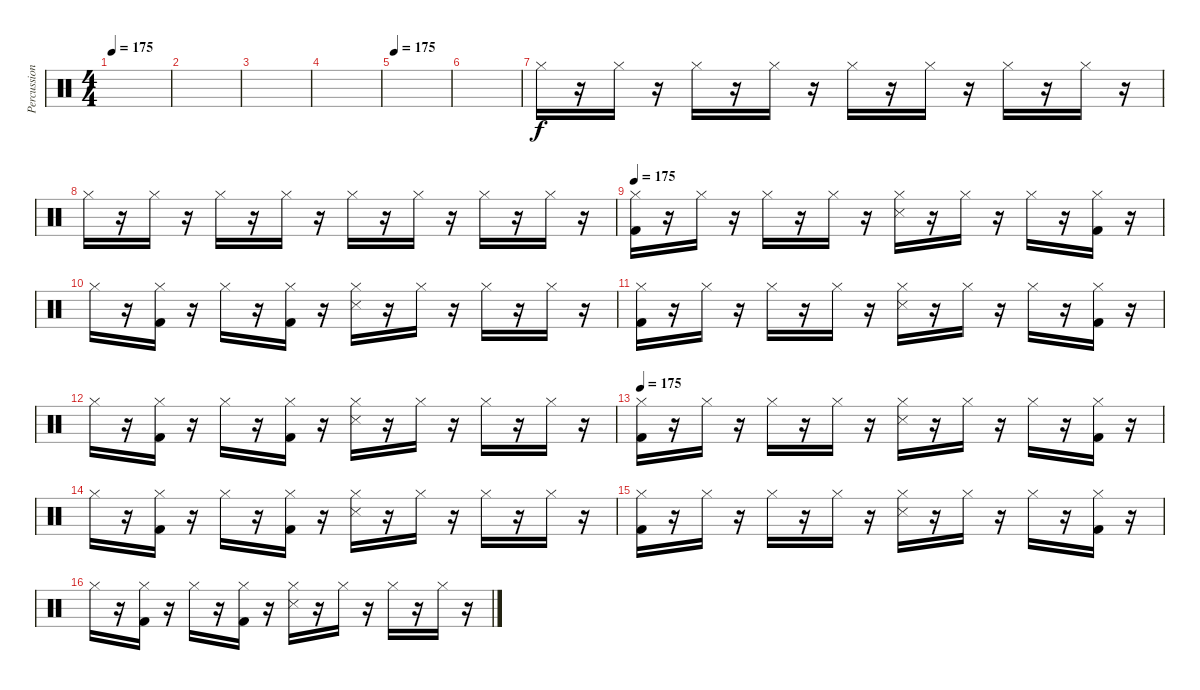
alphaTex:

\track ("Percussion" "Percussion") {instrument percussion}
\staff {score}
\articulation defaults
\ts (4 4)
\tempo 175
\clef neutral
\ks c
|
|
|
|
\tempo 175
|
|
"Hi-Hat (closed)".16 r.16 "Hi-Hat (closed)".16 r.16 "Hi-Hat (closed)".16 r.16 "Hi-Hat (closed)".16 r.16 "Hi-Hat (closed)".16 r.16 "Hi-Hat (closed)".16 r.16 "Hi-Hat (closed)".16 r.16 "Hi-Hat (closed)".16 r.16 |
"Hi-Hat (closed)".16 r.16 "Hi-Hat (closed)".16 r.16 "Hi-Hat (closed)".16 r.16 "Hi-Hat (closed)".16 r.16 "Hi-Hat (closed)".16 r.16 "Hi-Hat (closed)".16 r.16 "Hi-Hat (closed)".16 r.16 "Hi-Hat (closed)".16 r.16 |
\tempo 175
("Hi-Hat (closed)" "Kick (hit) 2").16 r.16 "Hi-Hat (closed)".16 r.16 "Hi-Hat (closed)".16 r.16 "Hi-Hat (closed)".16 r.16 ("Hi-Hat (closed)" "Metronome (hit)").16 r.16 "Hi-Hat (closed)".16 r.16 "Hi-Hat (closed)".16 r.16 ("Hi-Hat (closed)" "Kick (hit) 2").16 r.16 |
"Hi-Hat (closed)".16 r.16 ("Hi-Hat (closed)" "Kick (hit) 2").16 r.16 "Hi-Hat (closed)".16 r.16 ("Hi-Hat (closed)" "Kick (hit) 2").16 r.16 ("Hi-Hat (closed)" "Metronome (hit)").16 r.16 "Hi-Hat (closed)".16 r.16 "Hi-Hat (closed)".16 r.16 "Hi-Hat (closed)".16 r.16 |
("Hi-Hat (closed)" "Kick (hit) 2").16 r.16 "Hi-Hat (closed)".16 r.16 "Hi-Hat (closed)".16 r.16 "Hi-Hat (closed)".16 r.16 ("Hi-Hat (closed)" "Metronome (hit)").16 r.16 "Hi-Hat (closed)".16 r.16 "Hi-Hat (closed)".16 r.16 ("Hi-Hat (closed)" "Kick (hit) 2").16 r.16 |
"Hi-Hat (closed)".16 r.16 ("Hi-Hat (closed)" "Kick (hit) 2").16 r.16 "Hi-Hat (closed)".16 r.16 ("Hi-Hat (closed)" "Kick (hit) 2").16 r.16 ("Hi-Hat (closed)" "Metronome (hit)").16 r.16 "Hi-Hat (closed)".16 r.16 "Hi-Hat (closed)".16 r.16 "Hi-Hat (closed)".16 r.16 |
\tempo 175
("Hi-Hat (closed)" "Kick (hit) 2").16 r.16 "Hi-Hat (closed)".16 r.16 "Hi-Hat (closed)".16 r.16 "Hi-Hat (closed)".16 r.16 ("Hi-Hat (closed)" "Metronome (hit)").16 r.16 "Hi-Hat (closed)".16 r.16 "Hi-Hat (closed)".16 r.16 ("Hi-Hat (closed)" "Kick (hit) 2").16 r.16 |
"Hi-Hat (closed)".16 r.16 ("Hi-Hat (closed)" "Kick (hit) 2").16 r.16 "Hi-Hat (closed)".16 r.16 ("Hi-Hat (closed)" "Kick (hit) 2").16 r.16 ("Hi-Hat (closed)" "Metronome (hit)").16 r.16 "Hi-Hat (closed)".16 r.16 "Hi-Hat (closed)".16 r.16 "Hi-Hat (closed)".16 r.16 |
("Hi-Hat (closed)" "Kick (hit) 2").16 r.16 "Hi-Hat (closed)".16 r.16 "Hi-Hat (closed)".16 r.16 "Hi-Hat (closed)".16 r.16 ("Hi-Hat (closed)" "Metronome (hit)").16 r.16 "Hi-Hat (closed)".16 r.16 "Hi-Hat (closed)".16 r.16 ("Hi-Hat (closed)" "Kick (hit) 2").16 r.16 |
"Hi-Hat (closed)".16 r.16 ("Hi-Hat (closed)" "Kick (hit) 2").16 r.16 "Hi-Hat (closed)".16 r.16 ("Hi-Hat (closed)" "Kick (hit) 2").16 r.16 ("Hi-Hat (closed)" "Metronome (hit)").16 r.16 "Hi-Hat (closed)".16 r.16 "Hi-Hat (closed)".16 r.16 "Hi-Hat (closed)".16 r.16
